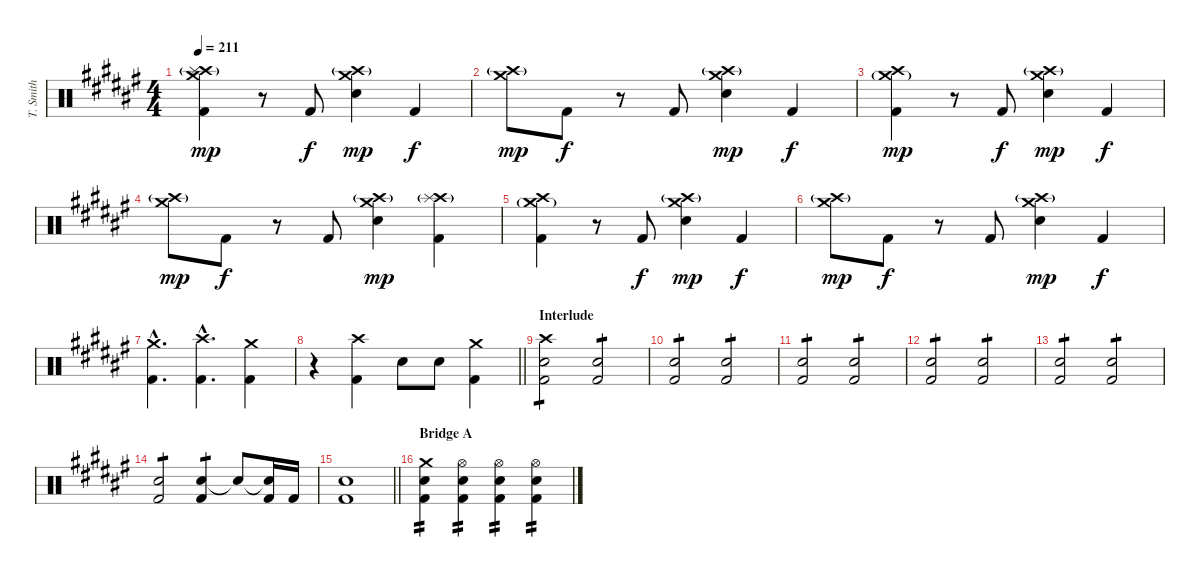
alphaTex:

\track ("T. Smith" "T. Smith") {instrument percussion}
\staff {score}
\articulation defaults
\ts (4 4)
\tempo 211
\clef neutral
\ks d#minor
("Crash medium (hit)" "Crash high (hit)"{g} "Splash (hit)" "Kick (hit) 2").4{dy mp} r.8 "Kick (hit) 2".8{dy f} ("Crash medium (hit)" "Crash high (hit)"{g} "Electric Snare (hit)").4{dy mp} "Kick (hit) 2".4{dy f} |
("Crash medium (hit)" "Crash high (hit)"{g}).8{dy mp} "Kick (hit) 2".8{dy f} r.8 "Kick (hit) 2".8 ("Crash medium (hit)" "Crash high (hit)"{g} "Electric Snare (hit)").4{dy mp} "Kick (hit) 2".4{dy f} |
("Crash medium (hit)"{g} "Crash high (hit)" "Kick (hit) 2").4{dy mp} r.8 "Kick (hit) 2".8{dy f} ("Crash medium (hit)" "Crash high (hit)"{g} "Electric Snare (hit)").4{dy mp} "Kick (hit) 2".4{dy f} |
("Crash medium (hit)" "Crash high (hit)"{g}).8{dy mp} "Kick (hit) 2".8{dy f} r.8 "Kick (hit) 2".8 ("Crash medium (hit)" "Crash high (hit)"{g} "Electric Snare (hit)").4{dy mp} ("Crash high (hit)"{g} "Splash (hit)" "Kick (hit) 2").4 |
("Crash medium (hit)"{g} "Crash high (hit)" "Kick (hit) 2").4 r.8 "Kick (hit) 2".8{dy f} ("Crash medium (hit)" "Crash high (hit)"{g} "Electric Snare (hit)").4{dy mp} "Kick (hit) 2".4{dy f} |
("Crash medium (hit)" "Crash high (hit)"{g}).8{dy mp} "Kick (hit) 2".8{dy f} r.8 "Kick (hit) 2".8 ("Crash medium (hit)" "Crash high (hit)"{g} "Electric Snare (hit)").4{dy mp} "Kick (hit) 2".4{dy f} |
("Crash medium (hit)"{hac} "Kick (hit) 2"{hac}).4{d} ("Crash high (hit)"{hac} "Kick (hit) 2"{hac}).4{d} ("Crash medium (hit)" "Kick (hit) 2").4 |
\barLineRight lightlight
r.4 ("Crash high (hit)" "Kick (hit) 2").4 "Electric Snare (hit)".8 "Electric Snare (hit)".8 ("Crash medium (hit)" "Kick (hit) 2").4 |
\section ("" "Interlude")
("Crash high (hit)" "Electric Snare (hit)" "Kick (hit) 2").2{tp 1 volume 9} ("Electric Snare (hit)" "Kick (hit) 2").2{tp 1} |
("Electric Snare (hit)" "Kick (hit) 2").2{tp 1} ("Electric Snare (hit)" "Kick (hit) 2").2{tp 1} |
("Electric Snare (hit)" "Kick (hit) 2").2{tp 1 volume 11} ("Electric Snare (hit)" "Kick (hit) 2").2{tp 1} |
("Electric Snare (hit)" "Kick (hit) 2").2{tp 1} ("Electric Snare (hit)" "Kick (hit) 2").2{tp 1} |
("Electric Snare (hit)" "Kick (hit) 2").2{tp 1} ("Electric Snare (hit)" "Kick (hit) 2").2{tp 1} |
("Electric Snare (hit)" "Kick (hit) 2").2{tp 1 volume 13} ("Electric Snare (hit)" "Kick (hit) 2").4{tp 1} "Snare (hit)"{t}.8 ("Snare (hit)"{t} "Kick (hit) 2").16 "Kick (hit) 2".16 |
\barLineRight lightlight
("Electric Snare (hit)" "Kick (hit) 2").1 |
\section ("" "Bridge A")
("Crash medium (hit)" "Electric Snare (hit)" "Kick (hit) 2").4{tp 2} ("Hi-Hat (open)" "Electric Snare (hit)" "Kick (hit) 2").4{tp 2} ("Hi-Hat (open)" "Electric Snare (hit)" "Kick (hit) 2").4{tp 2} ("Hi-Hat (open)" "Electric Snare (hit)" "Kick (hit) 2").4{tp 2}
